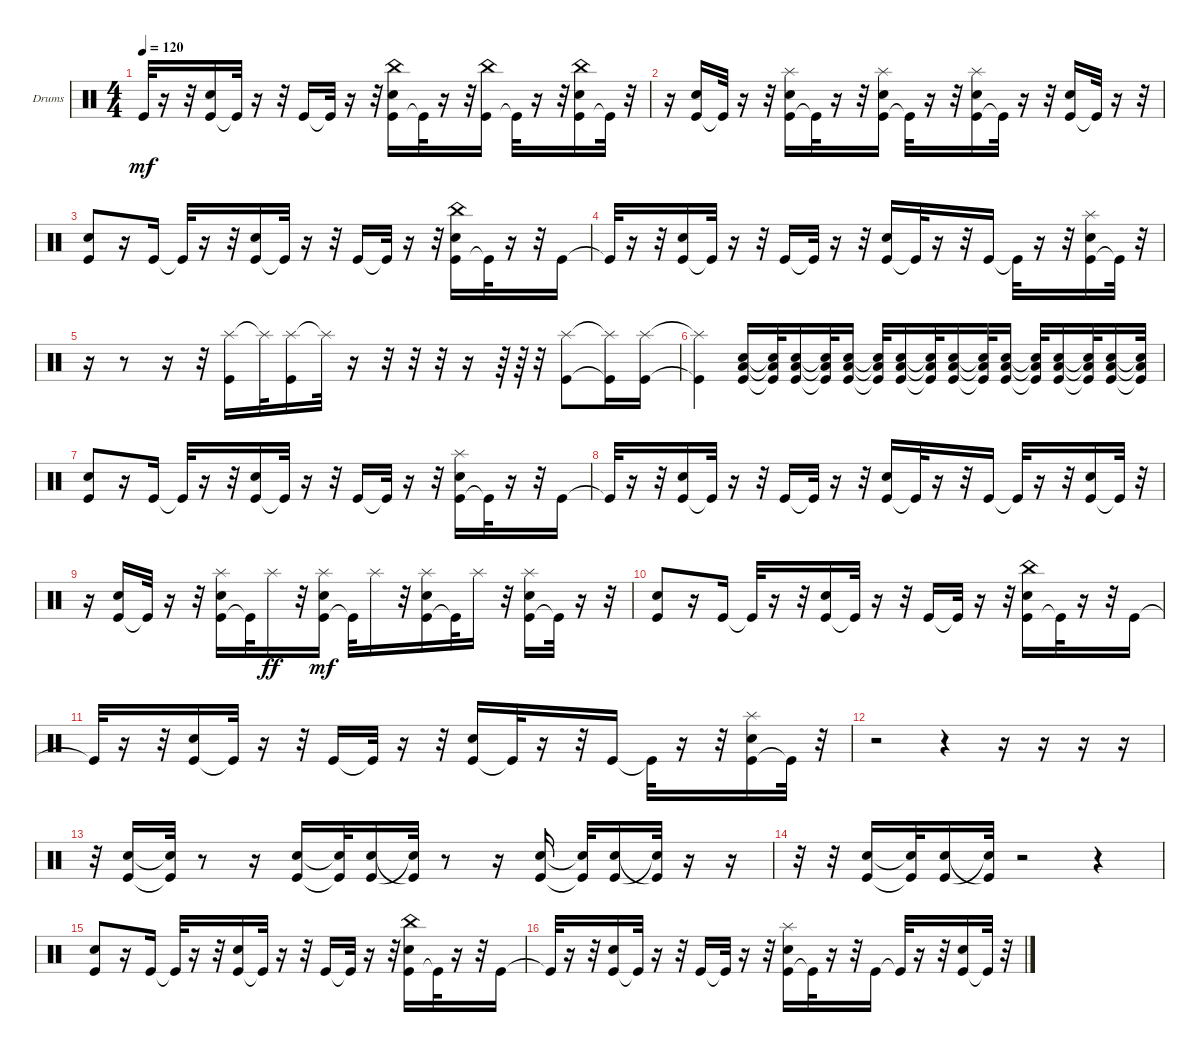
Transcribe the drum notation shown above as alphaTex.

\defaultSystemsLayout 4
\bracketExtendMode groupsimilarinstruments
\firstSystemTrackNameOrientation horizontal
\otherSystemsTrackNameOrientation horizontal
\track ("Drumkit" "Drums") {instrument percussion}
\staff {score}
\articulation defaults
\ts (4 4)
\tempo 120
\clef neutral
\ks c "Kick (hit)"{t}.32{dy mf}
r.16 r.32 ("Kick (hit)" "Snare (hit) 2").16 "Kick (hit)"{t}.32 r.16 r.32 "Kick (hit)".16 "Kick (hit)"{t}.32 r.16 r.32 ("Kick (hit)" "Snare (hit) 2" "China (hit)").16 "Kick (hit)"{t}.32 r.16 r.32 ("Kick (hit)" "China (hit)").16 "Kick (hit)"{t}.32 r.16 r.32 ("Kick (hit)" "Snare (hit) 2" "China (hit)").16 "Kick (hit)"{t}.32 r.32 |
r.16 ("Kick (hit)" "Snare (hit) 2").16 "Kick (hit)"{t}.32 r.16 r.32 ("Kick (hit)" "Snare (hit) 2" "Splash (hit)").16 "Kick (hit)"{t}.32 r.16 r.32 ("Kick (hit)" "Snare (hit) 2" "Splash (hit)").16 "Kick (hit)"{t}.32 r.16 r.32 ("Kick (hit)" "Snare (hit) 2" "Splash (hit)").16 "Kick (hit)"{t}.32 r.16 r.32 ("Kick (hit)" "Snare (hit) 2").16 "Kick (hit)"{t}.32 r.16 r.32 |
("Kick (hit)" "Snare (hit) 2").8 r.16 "Kick (hit)".16 "Kick (hit)"{t}.32 r.16 r.32 ("Kick (hit)" "Snare (hit) 2").16 "Kick (hit)"{t}.32 r.16 r.32 "Kick (hit)".16 "Kick (hit)"{t}.32 r.16 r.32 ("Kick (hit)" "Snare (hit) 2" "China (hit)").16 "Kick (hit)"{t}.32 r.16 r.32 "Kick (hit)".16 |
"Kick (hit)"{t}.32 r.16 r.32 ("Kick (hit)" "Snare (hit) 2").16 "Kick (hit)"{t}.32 r.16 r.32 "Kick (hit)".16 "Kick (hit)"{t}.32 r.16 r.32 ("Kick (hit)" "Snare (hit) 2").16 "Kick (hit)"{t}.32 r.16 r.32 "Kick (hit)".16 "Kick (hit)"{t}.32 r.16 r.32 ("Kick (hit)" "Snare (hit) 2" "Splash (hit)").16 "Kick (hit)"{t}.32 r.32 |
r.16 r.8 r.16 r.32 ("Splash (hit)" "Kick (hit)").16 "Splash (hit)"{t}.32 ("Splash (hit)" "Kick (hit)").16 "Splash (hit)"{t}.32 r.16 r.32 r.32 r.32 r.16 r.64 r.64 r.32 ("Splash (hit)" "Kick (hit)").8 ("Splash (hit)"{t} "Kick (hit)"{t}).16 ("Splash (hit)" "Kick (hit)").16 |
("Splash (hit)"{t} "Kick (hit)"{t}).4 ("Kick (hit)" "Snare (hit) 2" "Low Tom (hit)").16 ("Kick (hit)"{t} "Snare (hit) 2"{t} "Low Tom (hit)"{t}).32 ("Kick (hit)" "Snare (hit) 2" "Low Tom (hit)").16 ("Kick (hit)"{t} "Snare (hit) 2"{t} "Low Tom (hit)"{t}).32 ("Kick (hit)" "Snare (hit) 2" "Low Tom (hit)").16 ("Kick (hit)"{t} "Snare (hit) 2"{t} "Low Tom (hit)"{t}).32 ("Kick (hit)" "Snare (hit) 2" "Low Tom (hit)").16 ("Kick (hit)"{t} "Snare (hit) 2"{t} "Low Tom (hit)"{t}).32 ("Kick (hit)" "Snare (hit) 2" "Low Tom (hit)").16 ("Kick (hit)"{t} "Snare (hit) 2"{t} "Low Tom (hit)"{t}).32 ("Kick (hit)" "Snare (hit) 2" "Low Tom (hit)").16 ("Kick (hit)"{t} "Snare (hit) 2"{t} "Low Tom (hit)"{t}).32 ("Kick (hit)" "Snare (hit) 2" "Low Tom (hit)").16 ("Kick (hit)"{t} "Snare (hit) 2"{t} "Low Tom (hit)"{t}).32 ("Kick (hit)" "Snare (hit) 2" "Low Tom (hit)").16 ("Kick (hit)"{t} "Snare (hit) 2"{t} "Low Tom (hit)"{t}).32 |
("Kick (hit)" "Snare (hit) 2").8 r.16 "Kick (hit)".16 "Kick (hit)"{t}.32 r.16 r.32 ("Kick (hit)" "Snare (hit) 2").16 "Kick (hit)"{t}.32 r.16 r.32 "Kick (hit)".16 "Kick (hit)"{t}.32 r.16 r.32 ("Kick (hit)" "Snare (hit) 2" "Splash (hit)").16 "Kick (hit)"{t}.32 r.16 r.32 "Kick (hit)".16 |
"Kick (hit)"{t}.32 r.16 r.32 ("Kick (hit)" "Snare (hit) 2").16 "Kick (hit)"{t}.32 r.16 r.32 "Kick (hit)".16 "Kick (hit)"{t}.32 r.16 r.32 ("Kick (hit)" "Snare (hit) 2").16 "Kick (hit)"{t}.32 r.16 r.32 "Kick (hit)".16 "Kick (hit)"{t}.32 r.16 r.32 ("Kick (hit)" "Snare (hit) 2").16 "Kick (hit)"{t}.32 r.32 |
r.16 ("Kick (hit)" "Snare (hit) 2").16 "Kick (hit)"{t}.32 r.16 r.32 ("Kick (hit)" "Snare (hit) 2" "Splash (hit)").16 "Kick (hit)"{t}.32 "Splash (hit)".16{dy ff} r.32 ("Kick (hit)" "Snare (hit) 2" "Splash (hit)").16{dy mf} "Kick (hit)"{t}.32 "Splash (hit)".16 r.32 ("Kick (hit)" "Snare (hit) 2" "Splash (hit)").16 "Kick (hit)"{t}.32 "Splash (hit)".16 r.32 ("Kick (hit)" "Snare (hit) 2" "Splash (hit)").16 "Kick (hit)"{t}.32 r.16 r.32 |
("Kick (hit)" "Snare (hit) 2").8 r.16 "Kick (hit)".16 "Kick (hit)"{t}.32 r.16 r.32 ("Kick (hit)" "Snare (hit) 2").16 "Kick (hit)"{t}.32 r.16 r.32 "Kick (hit)".16 "Kick (hit)"{t}.32 r.16 r.32 ("Kick (hit)" "Snare (hit) 2" "China (hit)").16 "Kick (hit)"{t}.32 r.16 r.32 "Kick (hit)".16 |
"Kick (hit)"{t}.32 r.16 r.32 ("Kick (hit)" "Snare (hit) 2").16 "Kick (hit)"{t}.32 r.16 r.32 "Kick (hit)".16 "Kick (hit)"{t}.32 r.16 r.32 ("Kick (hit)" "Snare (hit) 2").16 "Kick (hit)"{t}.32 r.16 r.32 "Kick (hit)".16 "Kick (hit)"{t}.32 r.16 r.32 ("Kick (hit)" "Snare (hit) 2" "Splash (hit)").16 "Kick (hit)"{t}.32 r.32 |
r.2 r.4 r.16 r.16 r.16 r.16 |
r.32 ("Snare (hit) 2" "Kick (hit)").16 ("Snare (hit) 2"{t} "Kick (hit)"{t}).32 r.8 r.16 ("Snare (hit) 2" "Kick (hit)").16 ("Snare (hit) 2"{t} "Kick (hit)"{t}).32 ("Kick (hit)" "Snare (hit) 2").16 ("Snare (hit) 2"{t} "Kick (hit)"{t}).32 r.8 r.16 ("Snare (hit) 2" "Kick (hit)").16 ("Snare (hit) 2"{t} "Kick (hit)"{t}).32 ("Kick (hit)" "Snare (hit) 2").16 ("Snare (hit) 2"{t} "Kick (hit)"{t}).32 r.16 r.16 |
r.32 r.32 ("Snare (hit) 2" "Kick (hit)").16 ("Snare (hit) 2"{t} "Kick (hit)"{t}).32 ("Kick (hit)" "Snare (hit) 2").16 ("Snare (hit) 2"{t} "Kick (hit)"{t}).32 r.2 r.4 |
("Kick (hit)" "Snare (hit) 2").8 r.16 "Kick (hit)".16 "Kick (hit)"{t}.32 r.16 r.32 ("Kick (hit)" "Snare (hit) 2").16 "Kick (hit)"{t}.32 r.16 r.32 "Kick (hit)".16 "Kick (hit)"{t}.32 r.16 r.32 ("Kick (hit)" "Snare (hit) 2" "China (hit)").16 "Kick (hit)"{t}.32 r.16 r.32 "Kick (hit)".16 |
"Kick (hit)"{t}.32 r.16 r.32 ("Kick (hit)" "Snare (hit) 2").16 "Kick (hit)"{t}.32 r.16 r.32 "Kick (hit)".16 "Kick (hit)"{t}.32 r.16 r.32 ("Kick (hit)" "Snare (hit) 2" "Splash (hit)").16 "Kick (hit)"{t}.32 r.16 r.32 "Kick (hit)".16 "Kick (hit)"{t}.32 r.16 r.32 ("Kick (hit)" "Snare (hit) 2").16 "Kick (hit)"{t}.32 r.32
